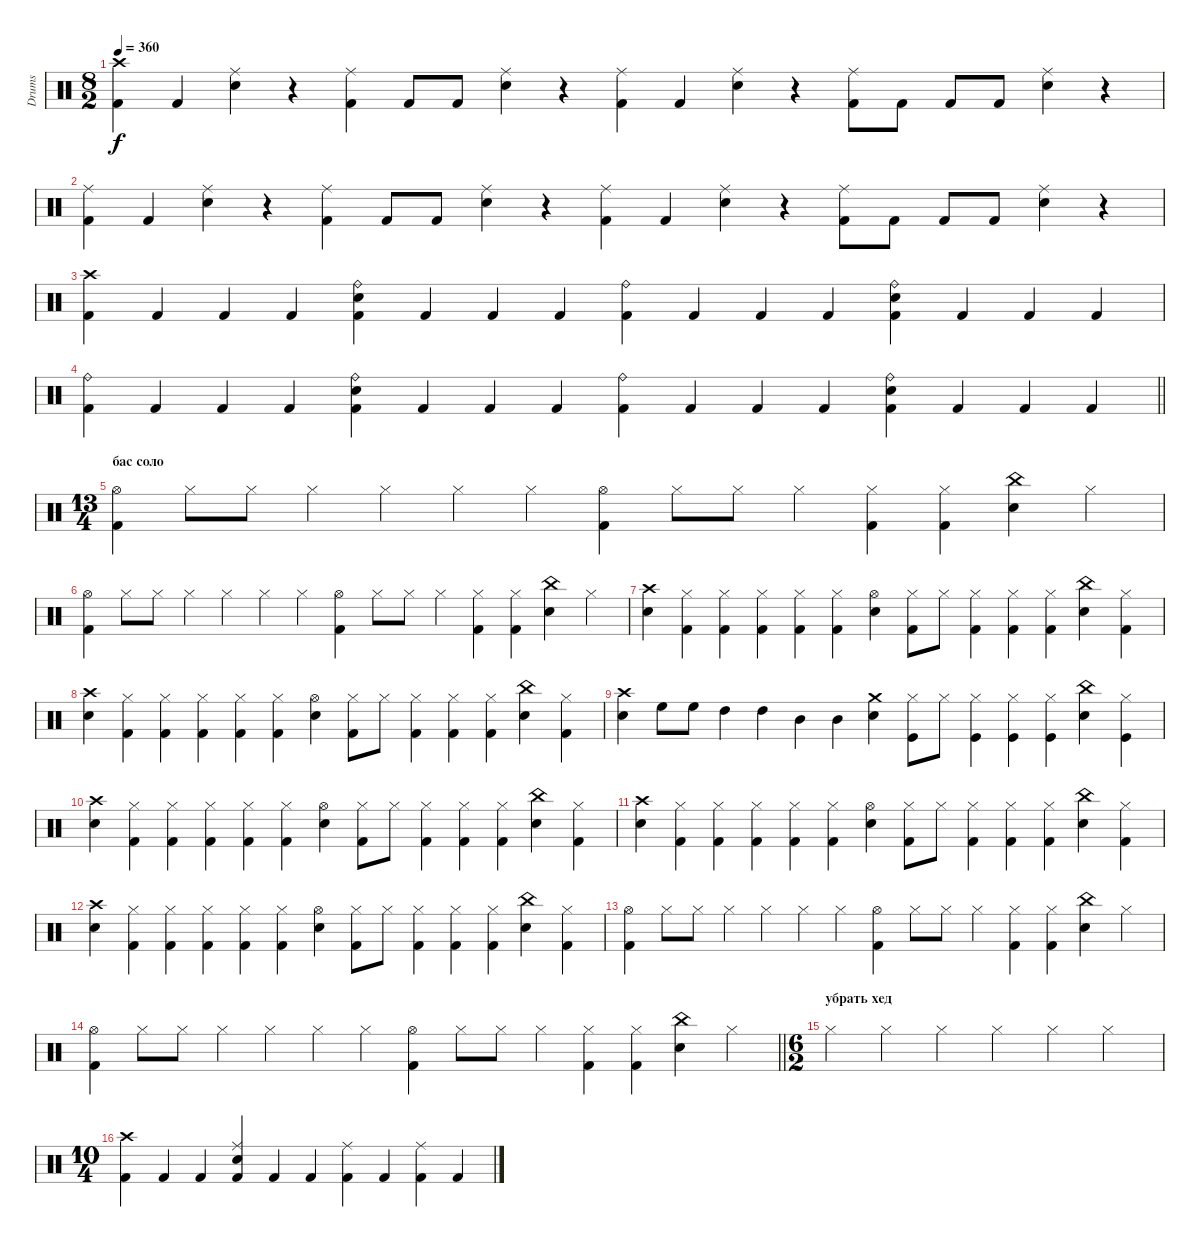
\track ("Drums" "Drums") {mute instrument percussion}
\staff {score}
\articulation defaults
\ts (8 2)
\tempo 360
\clef neutral
\ks c
("Crash high (hit)" "Kick (hit) 2").4{dy f} "Kick (hit) 2".4 ("Ride (middle)" "Snare (hit) 2").4 r.4 ("Ride (middle)" "Kick (hit) 2").4 "Kick (hit) 2".8 "Kick (hit) 2".8 ("Ride (middle)" "Snare (hit) 2").4 r.4 ("Ride (middle)" "Kick (hit) 2").4 "Kick (hit) 2".4 ("Ride (middle)" "Snare (hit) 2").4 r.4 ("Ride (middle)" "Kick (hit) 2").8 "Kick (hit) 2".8 "Kick (hit) 2".8 "Kick (hit) 2".8 ("Ride (middle)" "Snare (hit) 2").4 r.4 |
("Ride (middle)" "Kick (hit) 2").4 "Kick (hit) 2".4 ("Ride (middle)" "Snare (hit) 2").4 r.4 ("Ride (middle)" "Kick (hit) 2").4 "Kick (hit) 2".8 "Kick (hit) 2".8 ("Ride (middle)" "Snare (hit) 2").4 r.4 ("Ride (middle)" "Kick (hit) 2").4 "Kick (hit) 2".4 ("Ride (middle)" "Snare (hit) 2").4 r.4 ("Ride (middle)" "Kick (hit) 2").8 "Kick (hit) 2".8 "Kick (hit) 2".8 "Kick (hit) 2".8 ("Ride (middle)" "Snare (hit) 2").4 r.4 |
("Crash high (hit)" "Kick (hit) 2").4 "Kick (hit) 2".4 "Kick (hit) 2".4 "Kick (hit) 2".4 ("Ride (bell)" "Snare (hit) 2" "Kick (hit) 2").4 "Kick (hit) 2".4 "Kick (hit) 2".4 "Kick (hit) 2".4 ("Ride (bell)" "Kick (hit) 2").4 "Kick (hit) 2".4 "Kick (hit) 2".4 "Kick (hit) 2".4 ("Ride (bell)" "Snare (hit) 2" "Kick (hit) 2").4 "Kick (hit) 2".4 "Kick (hit) 2".4 "Kick (hit) 2".4 |
\barLineRight lightlight
("Ride (bell)" "Kick (hit) 2").4 "Kick (hit) 2".4 "Kick (hit) 2".4 "Kick (hit) 2".4 ("Ride (bell)" "Snare (hit) 2" "Kick (hit) 2").4 "Kick (hit) 2".4 "Kick (hit) 2".4 "Kick (hit) 2".4 ("Ride (bell)" "Kick (hit) 2").4 "Kick (hit) 2".4 "Kick (hit) 2".4 "Kick (hit) 2".4 ("Ride (bell)" "Snare (hit) 2" "Kick (hit) 2").4 "Kick (hit) 2".4 "Kick (hit) 2".4 "Kick (hit) 2".4 |
\ts (13 4)
\section ("" "бас соло")
("Hi-Hat (open)" "Kick (hit) 2").4 "Hi-Hat (closed)".8 "Hi-Hat (closed)".8 "Hi-Hat (closed)".4 "Hi-Hat (closed)".4 "Hi-Hat (closed)".4 "Hi-Hat (closed)".4 ("Hi-Hat (open)" "Kick (hit) 2").4 "Hi-Hat (closed)".8 "Hi-Hat (closed)".8 "Hi-Hat (closed)".4 ("Hi-Hat (closed)" "Kick (hit) 2").4 ("Hi-Hat (closed)" "Kick (hit) 2").4 ("China (hit)" "Snare (hit) 2").4 "Hi-Hat (closed)".4 |
("Hi-Hat (open)" "Kick (hit) 2").4 "Hi-Hat (closed)".8 "Hi-Hat (closed)".8 "Hi-Hat (closed)".4 "Hi-Hat (closed)".4 "Hi-Hat (closed)".4 "Hi-Hat (closed)".4 ("Hi-Hat (open)" "Kick (hit) 2").4 "Hi-Hat (closed)".8 "Hi-Hat (closed)".8 "Hi-Hat (closed)".4 ("Hi-Hat (closed)" "Kick (hit) 2").4 ("Hi-Hat (closed)" "Kick (hit) 2").4 ("China (hit)" "Snare (hit) 2").4 "Hi-Hat (closed)".4 |
("Crash high (hit)" "Snare (hit) 2").4 ("Hi-Hat (closed)" "Kick (hit) 2").4 ("Hi-Hat (closed)" "Kick (hit) 2").4 ("Hi-Hat (closed)" "Kick (hit) 2").4 ("Hi-Hat (closed)" "Kick (hit) 2").4 ("Hi-Hat (closed)" "Kick (hit) 2").4 ("Hi-Hat (open)" "Snare (hit) 2").4 ("Hi-Hat (closed)" "Kick (hit) 2").8 "Hi-Hat (closed)".8 ("Hi-Hat (closed)" "Kick (hit) 2").4 ("Hi-Hat (closed)" "Kick (hit) 2").4 ("Hi-Hat (closed)" "Kick (hit) 2").4 ("China (hit)" "Snare (hit) 2").4 ("Hi-Hat (closed)" "Kick (hit) 2").4 |
("Crash high (hit)" "Snare (hit) 2").4 ("Hi-Hat (closed)" "Kick (hit) 2").4 ("Hi-Hat (closed)" "Kick (hit) 2").4 ("Hi-Hat (closed)" "Kick (hit) 2").4 ("Hi-Hat (closed)" "Kick (hit) 2").4 ("Hi-Hat (closed)" "Kick (hit) 2").4 ("Hi-Hat (open)" "Snare (hit) 2").4 ("Hi-Hat (closed)" "Kick (hit) 2").8 "Hi-Hat (closed)".8 ("Hi-Hat (closed)" "Kick (hit) 2").4 ("Hi-Hat (closed)" "Kick (hit) 2").4 ("Hi-Hat (closed)" "Kick (hit) 2").4 ("China (hit)" "Snare (hit) 2").4 ("Hi-Hat (closed)" "Kick (hit) 2").4 |
("Crash high (hit)" "Snare (hit) 2").4 "High Floor Tom (hit)".8 "High Floor Tom (hit)".8 "High Tom (hit)".4 "High Tom (hit)".4 "Mid Tom (hit)".4 "Mid Tom (hit)".4 ("Crash medium (hit)" "Snare (hit) 2").4 ("Kick (hit)" "Hi-Hat (closed)").8 "Hi-Hat (closed)".8 ("Hi-Hat (closed)" "Kick (hit)").4 ("Hi-Hat (closed)" "Kick (hit)").4 ("Hi-Hat (closed)" "Kick (hit)").4 ("China (hit)" "Snare (hit) 2").4 ("Kick (hit)" "Hi-Hat (closed)").4 |
("Crash high (hit)" "Snare (hit) 2").4 ("Hi-Hat (closed)" "Kick (hit) 2").4 ("Hi-Hat (closed)" "Kick (hit) 2").4 ("Hi-Hat (closed)" "Kick (hit) 2").4 ("Hi-Hat (closed)" "Kick (hit) 2").4 ("Hi-Hat (closed)" "Kick (hit) 2").4 ("Hi-Hat (open)" "Snare (hit) 2").4 ("Hi-Hat (closed)" "Kick (hit) 2").8 "Hi-Hat (closed)".8 ("Hi-Hat (closed)" "Kick (hit) 2").4 ("Hi-Hat (closed)" "Kick (hit) 2").4 ("Hi-Hat (closed)" "Kick (hit) 2").4 ("China (hit)" "Snare (hit) 2").4 ("Hi-Hat (closed)" "Kick (hit) 2").4 |
("Crash high (hit)" "Snare (hit) 2").4 ("Hi-Hat (closed)" "Kick (hit) 2").4 ("Hi-Hat (closed)" "Kick (hit) 2").4 ("Hi-Hat (closed)" "Kick (hit) 2").4 ("Hi-Hat (closed)" "Kick (hit) 2").4 ("Hi-Hat (closed)" "Kick (hit) 2").4 ("Hi-Hat (open)" "Snare (hit) 2").4 ("Hi-Hat (closed)" "Kick (hit) 2").8 "Hi-Hat (closed)".8 ("Hi-Hat (closed)" "Kick (hit) 2").4 ("Hi-Hat (closed)" "Kick (hit) 2").4 ("Hi-Hat (closed)" "Kick (hit) 2").4 ("China (hit)" "Snare (hit) 2").4 ("Hi-Hat (closed)" "Kick (hit) 2").4 |
("Crash high (hit)" "Snare (hit) 2").4 ("Hi-Hat (closed)" "Kick (hit) 2").4 ("Hi-Hat (closed)" "Kick (hit) 2").4 ("Hi-Hat (closed)" "Kick (hit) 2").4 ("Hi-Hat (closed)" "Kick (hit) 2").4 ("Hi-Hat (closed)" "Kick (hit) 2").4 ("Hi-Hat (open)" "Snare (hit) 2").4 ("Hi-Hat (closed)" "Kick (hit) 2").8 "Hi-Hat (closed)".8 ("Hi-Hat (closed)" "Kick (hit) 2").4 ("Hi-Hat (closed)" "Kick (hit) 2").4 ("Hi-Hat (closed)" "Kick (hit) 2").4 ("China (hit)" "Snare (hit) 2").4 ("Hi-Hat (closed)" "Kick (hit) 2").4 |
("Hi-Hat (open)" "Kick (hit) 2").4 "Hi-Hat (closed)".8 "Hi-Hat (closed)".8 "Hi-Hat (closed)".4 "Hi-Hat (closed)".4 "Hi-Hat (closed)".4 "Hi-Hat (closed)".4 ("Hi-Hat (open)" "Kick (hit) 2").4 "Hi-Hat (closed)".8 "Hi-Hat (closed)".8 "Hi-Hat (closed)".4 ("Hi-Hat (closed)" "Kick (hit) 2").4 ("Hi-Hat (closed)" "Kick (hit) 2").4 ("China (hit)" "Snare (hit) 2").4 "Hi-Hat (closed)".4 |
\barLineRight lightlight
("Hi-Hat (open)" "Kick (hit) 2").4 "Hi-Hat (closed)".8 "Hi-Hat (closed)".8 "Hi-Hat (closed)".4 "Hi-Hat (closed)".4 "Hi-Hat (closed)".4 "Hi-Hat (closed)".4 ("Hi-Hat (open)" "Kick (hit) 2").4 "Hi-Hat (closed)".8 "Hi-Hat (closed)".8 "Hi-Hat (closed)".4 ("Hi-Hat (closed)" "Kick (hit) 2").4 ("Hi-Hat (closed)" "Kick (hit) 2").4 ("China (hit)" "Snare (hit) 2").4 "Hi-Hat (closed)".4 |
\ts (6 2)
\section ("" "убрать хед")
"Hi-Hat (closed)".2 "Hi-Hat (closed)".2 "Hi-Hat (closed)".2 "Hi-Hat (closed)".2 "Hi-Hat (closed)".2 "Hi-Hat (closed)".2 |
\ts (10 4)
("Crash high (hit)" "Kick (hit) 2").4 "Kick (hit) 2".4 "Kick (hit) 2".4 ("Ride (middle)" "Snare (hit) 2" "Kick (hit) 2").4 "Kick (hit) 2".4 "Kick (hit) 2".4 ("Ride (middle)" "Kick (hit) 2").4 "Kick (hit) 2".4 ("Ride (middle)" "Kick (hit) 2").4 "Kick (hit) 2".4
